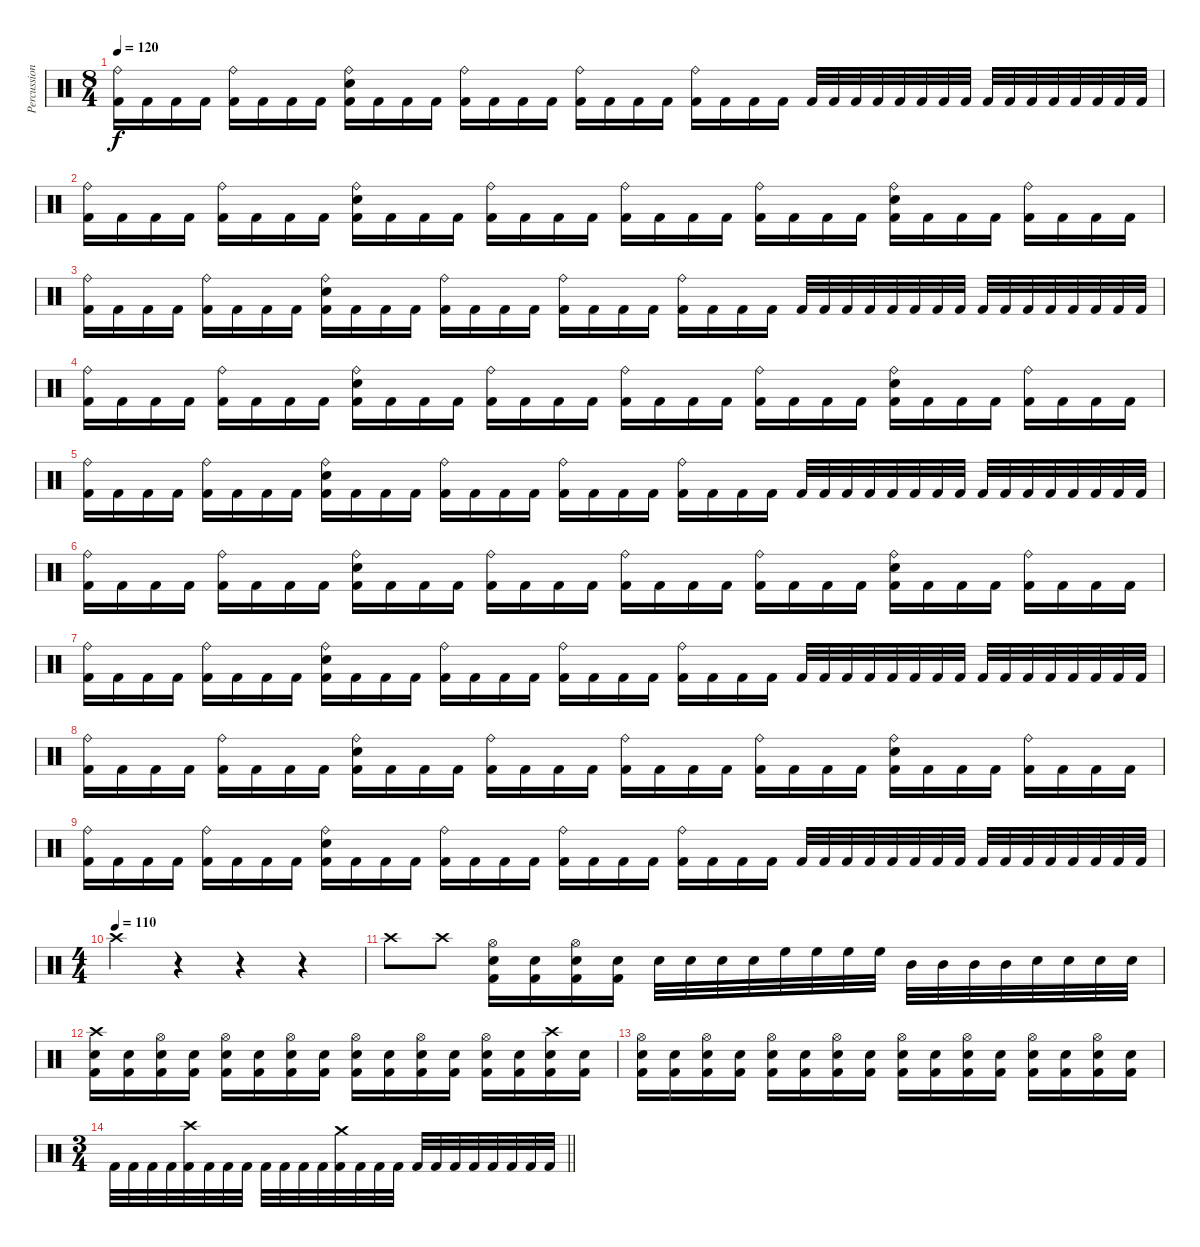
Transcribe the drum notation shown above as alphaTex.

\track ("Percussion" "Percussion") {instrument percussion}
\staff {score}
\articulation defaults
\ts (8 4)
\tempo 120
\clef neutral
\ks c
("Ride (bell)" "Kick (hit) 2").16{dy f} "Kick (hit) 2".16 "Kick (hit) 2".16 "Kick (hit) 2".16 ("Ride (bell)" "Kick (hit) 2").16 "Kick (hit) 2".16 "Kick (hit) 2".16 "Kick (hit) 2".16 ("Ride (bell)" "Kick (hit) 2" "Electric Snare (hit)").16 "Kick (hit) 2".16 "Kick (hit) 2".16 "Kick (hit) 2".16 ("Ride (bell)" "Kick (hit) 2").16 "Kick (hit) 2".16 "Kick (hit) 2".16 "Kick (hit) 2".16 ("Ride (bell)" "Kick (hit) 2").16 "Kick (hit) 2".16 "Kick (hit) 2".16 "Kick (hit) 2".16 ("Ride (bell)" "Kick (hit) 2").16 "Kick (hit) 2".16 "Kick (hit) 2".16 "Kick (hit) 2".16 "Kick (hit) 2".32 "Kick (hit) 2".32 "Kick (hit) 2".32 "Kick (hit) 2".32 "Kick (hit) 2".32 "Kick (hit) 2".32 "Kick (hit) 2".32 "Kick (hit) 2".32 "Kick (hit) 2".32 "Kick (hit) 2".32 "Kick (hit) 2".32 "Kick (hit) 2".32 "Kick (hit) 2".32 "Kick (hit) 2".32 "Kick (hit) 2".32 "Kick (hit) 2".32 |
("Ride (bell)" "Kick (hit) 2").16 "Kick (hit) 2".16 "Kick (hit) 2".16 "Kick (hit) 2".16 ("Ride (bell)" "Kick (hit) 2").16 "Kick (hit) 2".16 "Kick (hit) 2".16 "Kick (hit) 2".16 ("Ride (bell)" "Kick (hit) 2" "Electric Snare (hit)").16 "Kick (hit) 2".16 "Kick (hit) 2".16 "Kick (hit) 2".16 ("Ride (bell)" "Kick (hit) 2").16 "Kick (hit) 2".16 "Kick (hit) 2".16 "Kick (hit) 2".16 ("Ride (bell)" "Kick (hit) 2").16 "Kick (hit) 2".16 "Kick (hit) 2".16 "Kick (hit) 2".16 ("Ride (bell)" "Kick (hit) 2").16 "Kick (hit) 2".16 "Kick (hit) 2".16 "Kick (hit) 2".16 ("Ride (bell)" "Kick (hit) 2" "Electric Snare (hit)").16 "Kick (hit) 2".16 "Kick (hit) 2".16 "Kick (hit) 2".16 ("Ride (bell)" "Kick (hit) 2").16 "Kick (hit) 2".16 "Kick (hit) 2".16 "Kick (hit) 2".16 |
("Ride (bell)" "Kick (hit) 2").16 "Kick (hit) 2".16 "Kick (hit) 2".16 "Kick (hit) 2".16 ("Ride (bell)" "Kick (hit) 2").16 "Kick (hit) 2".16 "Kick (hit) 2".16 "Kick (hit) 2".16 ("Ride (bell)" "Kick (hit) 2" "Electric Snare (hit)").16 "Kick (hit) 2".16 "Kick (hit) 2".16 "Kick (hit) 2".16 ("Ride (bell)" "Kick (hit) 2").16 "Kick (hit) 2".16 "Kick (hit) 2".16 "Kick (hit) 2".16 ("Ride (bell)" "Kick (hit) 2").16 "Kick (hit) 2".16 "Kick (hit) 2".16 "Kick (hit) 2".16 ("Ride (bell)" "Kick (hit) 2").16 "Kick (hit) 2".16 "Kick (hit) 2".16 "Kick (hit) 2".16 "Kick (hit) 2".32 "Kick (hit) 2".32 "Kick (hit) 2".32 "Kick (hit) 2".32 "Kick (hit) 2".32 "Kick (hit) 2".32 "Kick (hit) 2".32 "Kick (hit) 2".32 "Kick (hit) 2".32 "Kick (hit) 2".32 "Kick (hit) 2".32 "Kick (hit) 2".32 "Kick (hit) 2".32 "Kick (hit) 2".32 "Kick (hit) 2".32 "Kick (hit) 2".32 |
("Ride (bell)" "Kick (hit) 2").16 "Kick (hit) 2".16 "Kick (hit) 2".16 "Kick (hit) 2".16 ("Ride (bell)" "Kick (hit) 2").16 "Kick (hit) 2".16 "Kick (hit) 2".16 "Kick (hit) 2".16 ("Ride (bell)" "Kick (hit) 2" "Electric Snare (hit)").16 "Kick (hit) 2".16 "Kick (hit) 2".16 "Kick (hit) 2".16 ("Ride (bell)" "Kick (hit) 2").16 "Kick (hit) 2".16 "Kick (hit) 2".16 "Kick (hit) 2".16 ("Ride (bell)" "Kick (hit) 2").16 "Kick (hit) 2".16 "Kick (hit) 2".16 "Kick (hit) 2".16 ("Ride (bell)" "Kick (hit) 2").16 "Kick (hit) 2".16 "Kick (hit) 2".16 "Kick (hit) 2".16 ("Ride (bell)" "Kick (hit) 2" "Electric Snare (hit)").16 "Kick (hit) 2".16 "Kick (hit) 2".16 "Kick (hit) 2".16 ("Ride (bell)" "Kick (hit) 2").16 "Kick (hit) 2".16 "Kick (hit) 2".16 "Kick (hit) 2".16 |
("Ride (bell)" "Kick (hit) 2").16 "Kick (hit) 2".16 "Kick (hit) 2".16 "Kick (hit) 2".16 ("Ride (bell)" "Kick (hit) 2").16 "Kick (hit) 2".16 "Kick (hit) 2".16 "Kick (hit) 2".16 ("Ride (bell)" "Kick (hit) 2" "Electric Snare (hit)").16 "Kick (hit) 2".16 "Kick (hit) 2".16 "Kick (hit) 2".16 ("Ride (bell)" "Kick (hit) 2").16 "Kick (hit) 2".16 "Kick (hit) 2".16 "Kick (hit) 2".16 ("Ride (bell)" "Kick (hit) 2").16 "Kick (hit) 2".16 "Kick (hit) 2".16 "Kick (hit) 2".16 ("Ride (bell)" "Kick (hit) 2").16 "Kick (hit) 2".16 "Kick (hit) 2".16 "Kick (hit) 2".16 "Kick (hit) 2".32 "Kick (hit) 2".32 "Kick (hit) 2".32 "Kick (hit) 2".32 "Kick (hit) 2".32 "Kick (hit) 2".32 "Kick (hit) 2".32 "Kick (hit) 2".32 "Kick (hit) 2".32 "Kick (hit) 2".32 "Kick (hit) 2".32 "Kick (hit) 2".32 "Kick (hit) 2".32 "Kick (hit) 2".32 "Kick (hit) 2".32 "Kick (hit) 2".32 |
("Ride (bell)" "Kick (hit) 2").16 "Kick (hit) 2".16 "Kick (hit) 2".16 "Kick (hit) 2".16 ("Ride (bell)" "Kick (hit) 2").16 "Kick (hit) 2".16 "Kick (hit) 2".16 "Kick (hit) 2".16 ("Ride (bell)" "Kick (hit) 2" "Electric Snare (hit)").16 "Kick (hit) 2".16 "Kick (hit) 2".16 "Kick (hit) 2".16 ("Ride (bell)" "Kick (hit) 2").16 "Kick (hit) 2".16 "Kick (hit) 2".16 "Kick (hit) 2".16 ("Ride (bell)" "Kick (hit) 2").16 "Kick (hit) 2".16 "Kick (hit) 2".16 "Kick (hit) 2".16 ("Ride (bell)" "Kick (hit) 2").16 "Kick (hit) 2".16 "Kick (hit) 2".16 "Kick (hit) 2".16 ("Ride (bell)" "Kick (hit) 2" "Electric Snare (hit)").16 "Kick (hit) 2".16 "Kick (hit) 2".16 "Kick (hit) 2".16 ("Ride (bell)" "Kick (hit) 2").16 "Kick (hit) 2".16 "Kick (hit) 2".16 "Kick (hit) 2".16 |
("Ride (bell)" "Kick (hit) 2").16 "Kick (hit) 2".16 "Kick (hit) 2".16 "Kick (hit) 2".16 ("Ride (bell)" "Kick (hit) 2").16 "Kick (hit) 2".16 "Kick (hit) 2".16 "Kick (hit) 2".16 ("Ride (bell)" "Kick (hit) 2" "Electric Snare (hit)").16 "Kick (hit) 2".16 "Kick (hit) 2".16 "Kick (hit) 2".16 ("Ride (bell)" "Kick (hit) 2").16 "Kick (hit) 2".16 "Kick (hit) 2".16 "Kick (hit) 2".16 ("Ride (bell)" "Kick (hit) 2").16 "Kick (hit) 2".16 "Kick (hit) 2".16 "Kick (hit) 2".16 ("Ride (bell)" "Kick (hit) 2").16 "Kick (hit) 2".16 "Kick (hit) 2".16 "Kick (hit) 2".16 "Kick (hit) 2".32 "Kick (hit) 2".32 "Kick (hit) 2".32 "Kick (hit) 2".32 "Kick (hit) 2".32 "Kick (hit) 2".32 "Kick (hit) 2".32 "Kick (hit) 2".32 "Kick (hit) 2".32 "Kick (hit) 2".32 "Kick (hit) 2".32 "Kick (hit) 2".32 "Kick (hit) 2".32 "Kick (hit) 2".32 "Kick (hit) 2".32 "Kick (hit) 2".32 |
("Ride (bell)" "Kick (hit) 2").16 "Kick (hit) 2".16 "Kick (hit) 2".16 "Kick (hit) 2".16 ("Ride (bell)" "Kick (hit) 2").16 "Kick (hit) 2".16 "Kick (hit) 2".16 "Kick (hit) 2".16 ("Ride (bell)" "Kick (hit) 2" "Electric Snare (hit)").16 "Kick (hit) 2".16 "Kick (hit) 2".16 "Kick (hit) 2".16 ("Ride (bell)" "Kick (hit) 2").16 "Kick (hit) 2".16 "Kick (hit) 2".16 "Kick (hit) 2".16 ("Ride (bell)" "Kick (hit) 2").16 "Kick (hit) 2".16 "Kick (hit) 2".16 "Kick (hit) 2".16 ("Ride (bell)" "Kick (hit) 2").16 "Kick (hit) 2".16 "Kick (hit) 2".16 "Kick (hit) 2".16 ("Ride (bell)" "Kick (hit) 2" "Electric Snare (hit)").16 "Kick (hit) 2".16 "Kick (hit) 2".16 "Kick (hit) 2".16 ("Ride (bell)" "Kick (hit) 2").16 "Kick (hit) 2".16 "Kick (hit) 2".16 "Kick (hit) 2".16 |
("Ride (bell)" "Kick (hit) 2").16 "Kick (hit) 2".16 "Kick (hit) 2".16 "Kick (hit) 2".16 ("Ride (bell)" "Kick (hit) 2").16 "Kick (hit) 2".16 "Kick (hit) 2".16 "Kick (hit) 2".16 ("Ride (bell)" "Kick (hit) 2" "Electric Snare (hit)").16 "Kick (hit) 2".16 "Kick (hit) 2".16 "Kick (hit) 2".16 ("Ride (bell)" "Kick (hit) 2").16 "Kick (hit) 2".16 "Kick (hit) 2".16 "Kick (hit) 2".16 ("Ride (bell)" "Kick (hit) 2").16 "Kick (hit) 2".16 "Kick (hit) 2".16 "Kick (hit) 2".16 ("Ride (bell)" "Kick (hit) 2").16 "Kick (hit) 2".16 "Kick (hit) 2".16 "Kick (hit) 2".16 "Kick (hit) 2".32 "Kick (hit) 2".32 "Kick (hit) 2".32 "Kick (hit) 2".32 "Kick (hit) 2".32 "Kick (hit) 2".32 "Kick (hit) 2".32 "Kick (hit) 2".32 "Kick (hit) 2".32 "Kick (hit) 2".32 "Kick (hit) 2".32 "Kick (hit) 2".32 "Kick (hit) 2".32 "Kick (hit) 2".32 "Kick (hit) 2".32 "Kick (hit) 2".32 |
\ts (4 4)
\tempo (110)
"Crash high (hit)".4 r.4 r.4 r.4 |
"Crash high (hit)".8 "Crash high (hit)".8 ("Hi-Hat (open)" "Electric Snare (hit)" "Kick (hit) 2").16 ("Electric Snare (hit)" "Kick (hit) 2").16 ("Hi-Hat (open)" "Electric Snare (hit)" "Kick (hit) 2").16 ("Electric Snare (hit)" "Kick (hit) 2").16 "Electric Snare (hit)".32 "Electric Snare (hit)".32 "Electric Snare (hit)".32 "Electric Snare (hit)".32 "High Floor Tom (hit)".32 "High Floor Tom (hit)".32 "High Floor Tom (hit)".32 "High Floor Tom (hit)".32 "Mid Tom (hit)".32 "Mid Tom (hit)".32 "Mid Tom (hit)".32 "Mid Tom (hit)".32 "Electric Snare (hit)".32 "Electric Snare (hit)".32 "Electric Snare (hit)".32 "Electric Snare (hit)".32 |
("Crash high (hit)" "Electric Snare (hit)" "Kick (hit) 2").16 ("Electric Snare (hit)" "Kick (hit) 2").16 ("Hi-Hat (open)" "Electric Snare (hit)" "Kick (hit) 2").16 ("Electric Snare (hit)" "Kick (hit) 2").16 ("Hi-Hat (open)" "Electric Snare (hit)" "Kick (hit) 2").16 ("Electric Snare (hit)" "Kick (hit) 2").16 ("Hi-Hat (open)" "Electric Snare (hit)" "Kick (hit) 2").16 ("Electric Snare (hit)" "Kick (hit) 2").16 ("Hi-Hat (open)" "Electric Snare (hit)" "Kick (hit) 2").16 ("Electric Snare (hit)" "Kick (hit) 2").16 ("Hi-Hat (open)" "Electric Snare (hit)" "Kick (hit) 2").16 ("Electric Snare (hit)" "Kick (hit) 2").16 ("Hi-Hat (open)" "Electric Snare (hit)" "Kick (hit) 2").16 ("Electric Snare (hit)" "Kick (hit) 2").16 ("Crash high (hit)" "Electric Snare (hit)" "Kick (hit) 2").16 ("Electric Snare (hit)" "Kick (hit) 2").16 |
("Hi-Hat (open)" "Electric Snare (hit)" "Kick (hit) 2").16 ("Electric Snare (hit)" "Kick (hit) 2").16 ("Hi-Hat (open)" "Electric Snare (hit)" "Kick (hit) 2").16 ("Electric Snare (hit)" "Kick (hit) 2").16 ("Hi-Hat (open)" "Electric Snare (hit)" "Kick (hit) 2").16 ("Electric Snare (hit)" "Kick (hit) 2").16 ("Hi-Hat (open)" "Electric Snare (hit)" "Kick (hit) 2").16 ("Electric Snare (hit)" "Kick (hit) 2").16 ("Hi-Hat (open)" "Electric Snare (hit)" "Kick (hit) 2").16 ("Electric Snare (hit)" "Kick (hit) 2").16 ("Hi-Hat (open)" "Electric Snare (hit)" "Kick (hit) 2").16 ("Electric Snare (hit)" "Kick (hit) 2").16 ("Hi-Hat (open)" "Electric Snare (hit)" "Kick (hit) 2").16 ("Electric Snare (hit)" "Kick (hit) 2").16 ("Hi-Hat (open)" "Electric Snare (hit)" "Kick (hit) 2").16 ("Electric Snare (hit)" "Kick (hit) 2").16 |
\ts (3 4)
\barLineRight lightlight "Kick (hit) 2".32 "Kick (hit) 2".32 "Kick (hit) 2".32 "Kick (hit) 2".32
("Crash high (hit)" "Kick (hit) 2").32 "Kick (hit) 2".32 "Kick (hit) 2".32 "Kick (hit) 2".32 "Kick (hit) 2".32 "Kick (hit) 2".32 "Kick (hit) 2".32 "Kick (hit) 2".32 ("Crash medium (hit)" "Kick (hit) 2").32 "Kick (hit) 2".32 "Kick (hit) 2".32 "Kick (hit) 2".32 "Kick (hit) 2".32 "Kick (hit) 2".32 "Kick (hit) 2".32 "Kick (hit) 2".32 "Kick (hit) 2".32 "Kick (hit) 2".32 "Kick (hit) 2".32 "Kick (hit) 2".32
